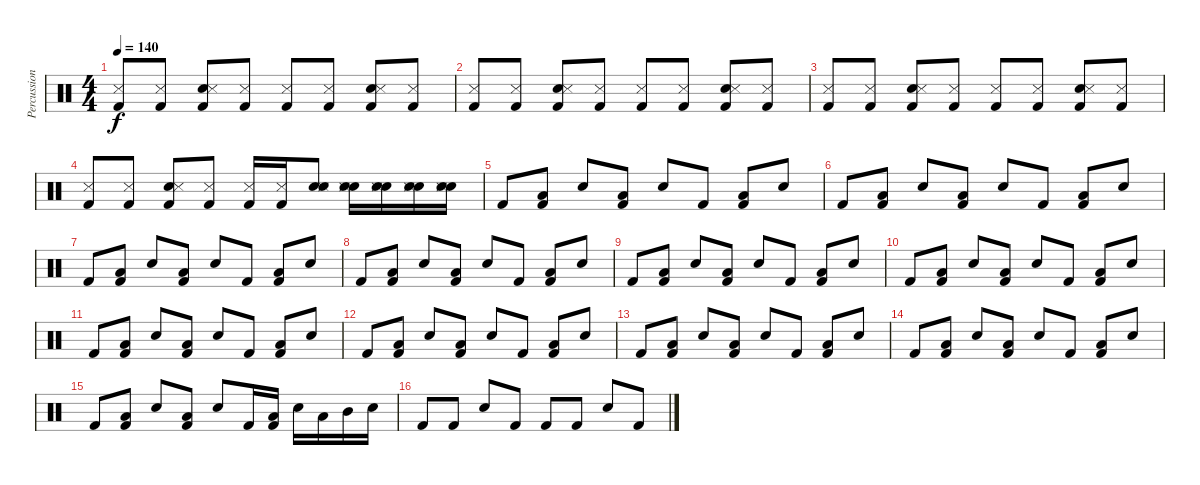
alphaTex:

\track ("Percussion" "Percussion") {instrument percussion}
\staff {score}
\articulation defaults
\ts (4 4)
\tempo 140
\clef neutral
\ks c
("Kick (hit) 2" "Snare (side stick) 3").8{dy f} ("Kick (hit) 2" "Snare (side stick) 3").8 ("Kick (hit) 2" "Snare (hit) 2" "Snare (side stick) 3").8 ("Kick (hit) 2" "Snare (side stick) 3").8 ("Kick (hit) 2" "Snare (side stick) 3").8 ("Kick (hit) 2" "Snare (side stick) 3").8 ("Kick (hit) 2" "Snare (hit) 2" "Snare (side stick) 3").8 ("Kick (hit) 2" "Snare (side stick) 3").8 |
("Kick (hit) 2" "Snare (side stick) 3").8 ("Kick (hit) 2" "Snare (side stick) 3").8 ("Kick (hit) 2" "Snare (hit) 2" "Snare (side stick) 3").8 ("Kick (hit) 2" "Snare (side stick) 3").8 ("Kick (hit) 2" "Snare (side stick) 3").8 ("Kick (hit) 2" "Snare (side stick) 3").8 ("Kick (hit) 2" "Snare (hit) 2" "Snare (side stick) 3").8 ("Kick (hit) 2" "Snare (side stick) 3").8 |
("Kick (hit) 2" "Snare (side stick) 3").8 ("Kick (hit) 2" "Snare (side stick) 3").8 ("Kick (hit) 2" "Snare (hit) 2" "Snare (side stick) 3").8 ("Kick (hit) 2" "Snare (side stick) 3").8 ("Kick (hit) 2" "Snare (side stick) 3").8 ("Kick (hit) 2" "Snare (side stick) 3").8 ("Kick (hit) 2" "Snare (hit) 2" "Snare (side stick) 3").8 ("Kick (hit) 2" "Snare (side stick) 3").8 |
("Kick (hit) 2" "Snare (side stick) 3").8 ("Kick (hit) 2" "Snare (side stick) 3").8 ("Kick (hit) 2" "Snare (hit) 2" "Snare (side stick) 3").8 ("Kick (hit) 2" "Snare (side stick) 3").8 ("Kick (hit) 2" "Snare (side stick) 3").16 ("Kick (hit) 2" "Snare (side stick) 3").16 ("Snare (hit) 2" "Snare (hit) 2" "Snare (side stick) 3").8 ("Snare (hit) 2" "Snare (hit) 2" "Snare (side stick) 3").16 ("Snare (hit) 2" "Snare (hit) 2" "Snare (side stick) 3").16 ("Snare (hit) 2" "Snare (hit) 2" "Snare (side stick) 3").16 ("Snare (hit) 2" "Snare (hit) 2" "Snare (side stick) 3").16 |
"Kick (hit) 2".8 ("Kick (hit) 2" "Low Tom (hit)").8 "Snare (hit) 2".8 ("Kick (hit) 2" "Low Tom (hit)").8 "Snare (hit) 2".8 "Kick (hit) 2".8 ("Kick (hit) 2" "Low Tom (hit)").8 "Snare (hit) 2".8 |
"Kick (hit) 2".8 ("Kick (hit) 2" "Low Tom (hit)").8 "Snare (hit) 2".8 ("Kick (hit) 2" "Low Tom (hit)").8 "Snare (hit) 2".8 "Kick (hit) 2".8 ("Kick (hit) 2" "Low Tom (hit)").8 "Snare (hit) 2".8 |
"Kick (hit) 2".8 ("Kick (hit) 2" "Low Tom (hit)").8 "Snare (hit) 2".8 ("Kick (hit) 2" "Low Tom (hit)").8 "Snare (hit) 2".8 "Kick (hit) 2".8 ("Kick (hit) 2" "Low Tom (hit)").8 "Snare (hit) 2".8 |
"Kick (hit) 2".8 ("Kick (hit) 2" "Low Tom (hit)").8 "Snare (hit) 2".8 ("Kick (hit) 2" "Low Tom (hit)").8 "Snare (hit) 2".8 "Kick (hit) 2".8 ("Kick (hit) 2" "Low Tom (hit)").8 "Snare (hit) 2".8 |
"Kick (hit) 2".8 ("Kick (hit) 2" "Low Tom (hit)").8 "Snare (hit) 2".8 ("Kick (hit) 2" "Low Tom (hit)").8 "Snare (hit) 2".8 "Kick (hit) 2".8 ("Kick (hit) 2" "Low Tom (hit)").8 "Snare (hit) 2".8 |
"Kick (hit) 2".8 ("Kick (hit) 2" "Low Tom (hit)").8 "Snare (hit) 2".8 ("Kick (hit) 2" "Low Tom (hit)").8 "Snare (hit) 2".8 "Kick (hit) 2".8 ("Kick (hit) 2" "Low Tom (hit)").8 "Snare (hit) 2".8 |
"Kick (hit) 2".8 ("Kick (hit) 2" "Low Tom (hit)").8 "Snare (hit) 2".8 ("Kick (hit) 2" "Low Tom (hit)").8 "Snare (hit) 2".8 "Kick (hit) 2".8 ("Kick (hit) 2" "Low Tom (hit)").8 "Snare (hit) 2".8 |
"Kick (hit) 2".8 ("Kick (hit) 2" "Low Tom (hit)").8 "Snare (hit) 2".8 ("Kick (hit) 2" "Low Tom (hit)").8 "Snare (hit) 2".8 "Kick (hit) 2".8 ("Kick (hit) 2" "Low Tom (hit)").8 "Snare (hit) 2".8 |
"Kick (hit) 2".8 ("Kick (hit) 2" "Low Tom (hit)").8 "Snare (hit) 2".8 ("Kick (hit) 2" "Low Tom (hit)").8 "Snare (hit) 2".8 "Kick (hit) 2".8 ("Kick (hit) 2" "Low Tom (hit)").8 "Snare (hit) 2".8 |
"Kick (hit) 2".8 ("Kick (hit) 2" "Low Tom (hit)").8 "Snare (hit) 2".8 ("Kick (hit) 2" "Low Tom (hit)").8 "Snare (hit) 2".8 "Kick (hit) 2".8 ("Kick (hit) 2" "Low Tom (hit)").8 "Snare (hit) 2".8 |
"Kick (hit) 2".8 ("Kick (hit) 2" "Low Tom (hit)").8 "Snare (hit) 2".8 ("Kick (hit) 2" "Low Tom (hit)").8 "Snare (hit) 2".8 "Kick (hit) 2".16 ("Kick (hit) 2" "Low Tom (hit)").16 "Snare (hit) 2".16 "Low Tom (hit)".16 "Mid Tom (hit)".16 "Snare (hit) 2".16 |
"Kick (hit) 2".8 "Kick (hit) 2".8 "Snare (hit) 2".8 "Kick (hit) 2".8 "Kick (hit) 2".8 "Kick (hit) 2".8 "Snare (hit) 2".8 "Kick (hit) 2".8
